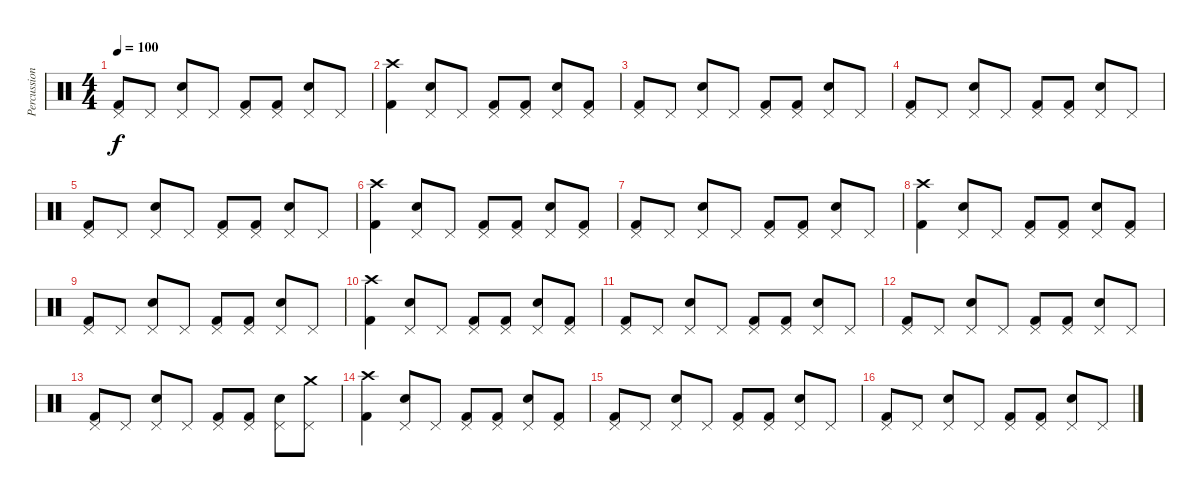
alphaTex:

\track ("Percussion" "Percussion") {instrument percussion}
\staff {score}
\articulation defaults
\ts (4 4)
\tempo 100
\clef neutral
\ks c
("Pedal Hi-Hat (hit)" "Kick (hit) 2").8{dy f} "Pedal Hi-Hat (hit)".8 ("Pedal Hi-Hat (hit)" "Snare (hit) 2").8 "Pedal Hi-Hat (hit)".8 ("Pedal Hi-Hat (hit)" "Kick (hit) 2").8 ("Pedal Hi-Hat (hit)" "Kick (hit) 2").8 ("Pedal Hi-Hat (hit)" "Snare (hit) 2").8 "Pedal Hi-Hat (hit)".8 |
("Crash high (hit)" "Kick (hit) 2").4 ("Pedal Hi-Hat (hit)" "Snare (hit) 2").8 "Pedal Hi-Hat (hit)".8 ("Pedal Hi-Hat (hit)" "Kick (hit) 2").8 ("Pedal Hi-Hat (hit)" "Kick (hit) 2").8 ("Pedal Hi-Hat (hit)" "Snare (hit) 2").8 ("Pedal Hi-Hat (hit)" "Kick (hit) 2").8 |
("Pedal Hi-Hat (hit)" "Kick (hit) 2").8 "Pedal Hi-Hat (hit)".8 ("Pedal Hi-Hat (hit)" "Snare (hit) 2").8 "Pedal Hi-Hat (hit)".8 ("Pedal Hi-Hat (hit)" "Kick (hit) 2").8 ("Pedal Hi-Hat (hit)" "Kick (hit) 2").8 ("Pedal Hi-Hat (hit)" "Snare (hit) 2").8 "Pedal Hi-Hat (hit)".8 |
("Pedal Hi-Hat (hit)" "Kick (hit) 2").8 "Pedal Hi-Hat (hit)".8 ("Pedal Hi-Hat (hit)" "Snare (hit) 2").8 "Pedal Hi-Hat (hit)".8 ("Pedal Hi-Hat (hit)" "Kick (hit) 2").8 ("Pedal Hi-Hat (hit)" "Kick (hit) 2").8 ("Pedal Hi-Hat (hit)" "Snare (hit) 2").8 "Pedal Hi-Hat (hit)".8 |
("Pedal Hi-Hat (hit)" "Kick (hit) 2").8 "Pedal Hi-Hat (hit)".8 ("Pedal Hi-Hat (hit)" "Snare (hit) 2").8 "Pedal Hi-Hat (hit)".8 ("Pedal Hi-Hat (hit)" "Kick (hit) 2").8 ("Pedal Hi-Hat (hit)" "Kick (hit) 2").8 ("Pedal Hi-Hat (hit)" "Snare (hit) 2").8 "Pedal Hi-Hat (hit)".8 |
("Crash high (hit)" "Kick (hit) 2").4 ("Pedal Hi-Hat (hit)" "Snare (hit) 2").8 "Pedal Hi-Hat (hit)".8 ("Pedal Hi-Hat (hit)" "Kick (hit) 2").8 ("Pedal Hi-Hat (hit)" "Kick (hit) 2").8 ("Pedal Hi-Hat (hit)" "Snare (hit) 2").8 ("Pedal Hi-Hat (hit)" "Kick (hit) 2").8 |
("Pedal Hi-Hat (hit)" "Kick (hit) 2").8 "Pedal Hi-Hat (hit)".8 ("Pedal Hi-Hat (hit)" "Snare (hit) 2").8 "Pedal Hi-Hat (hit)".8 ("Pedal Hi-Hat (hit)" "Kick (hit) 2").8 ("Pedal Hi-Hat (hit)" "Kick (hit) 2").8 ("Pedal Hi-Hat (hit)" "Snare (hit) 2").8 "Pedal Hi-Hat (hit)".8 |
("Crash high (hit)" "Kick (hit) 2").4 ("Pedal Hi-Hat (hit)" "Snare (hit) 2").8 "Pedal Hi-Hat (hit)".8 ("Pedal Hi-Hat (hit)" "Kick (hit) 2").8 ("Pedal Hi-Hat (hit)" "Kick (hit) 2").8 ("Pedal Hi-Hat (hit)" "Snare (hit) 2").8 ("Pedal Hi-Hat (hit)" "Kick (hit) 2").8 |
("Pedal Hi-Hat (hit)" "Kick (hit) 2").8 "Pedal Hi-Hat (hit)".8 ("Pedal Hi-Hat (hit)" "Snare (hit) 2").8 "Pedal Hi-Hat (hit)".8 ("Pedal Hi-Hat (hit)" "Kick (hit) 2").8 ("Pedal Hi-Hat (hit)" "Kick (hit) 2").8 ("Pedal Hi-Hat (hit)" "Snare (hit) 2").8 "Pedal Hi-Hat (hit)".8 |
("Crash high (hit)" "Kick (hit) 2").4 ("Pedal Hi-Hat (hit)" "Snare (hit) 2").8 "Pedal Hi-Hat (hit)".8 ("Pedal Hi-Hat (hit)" "Kick (hit) 2").8 ("Pedal Hi-Hat (hit)" "Kick (hit) 2").8 ("Pedal Hi-Hat (hit)" "Snare (hit) 2").8 ("Pedal Hi-Hat (hit)" "Kick (hit) 2").8 |
("Pedal Hi-Hat (hit)" "Kick (hit) 2").8 "Pedal Hi-Hat (hit)".8 ("Pedal Hi-Hat (hit)" "Snare (hit) 2").8 "Pedal Hi-Hat (hit)".8 ("Pedal Hi-Hat (hit)" "Kick (hit) 2").8 ("Pedal Hi-Hat (hit)" "Kick (hit) 2").8 ("Pedal Hi-Hat (hit)" "Snare (hit) 2").8 "Pedal Hi-Hat (hit)".8 |
("Pedal Hi-Hat (hit)" "Kick (hit) 2").8 "Pedal Hi-Hat (hit)".8 ("Pedal Hi-Hat (hit)" "Snare (hit) 2").8 "Pedal Hi-Hat (hit)".8 ("Pedal Hi-Hat (hit)" "Kick (hit) 2").8 ("Pedal Hi-Hat (hit)" "Kick (hit) 2").8 ("Pedal Hi-Hat (hit)" "Snare (hit) 2").8 "Pedal Hi-Hat (hit)".8 |
("Pedal Hi-Hat (hit)" "Kick (hit) 2").8 "Pedal Hi-Hat (hit)".8 ("Pedal Hi-Hat (hit)" "Snare (hit) 2").8 "Pedal Hi-Hat (hit)".8 ("Pedal Hi-Hat (hit)" "Kick (hit) 2").8 ("Pedal Hi-Hat (hit)" "Kick (hit) 2").8 ("Pedal Hi-Hat (hit)" "Snare (hit) 2").8 ("Pedal Hi-Hat (hit)" "Crash medium (hit)").8 |
("Crash high (hit)" "Kick (hit) 2").4 ("Pedal Hi-Hat (hit)" "Snare (hit) 2").8 "Pedal Hi-Hat (hit)".8 ("Pedal Hi-Hat (hit)" "Kick (hit) 2").8 ("Pedal Hi-Hat (hit)" "Kick (hit) 2").8 ("Pedal Hi-Hat (hit)" "Snare (hit) 2").8 ("Pedal Hi-Hat (hit)" "Kick (hit) 2").8 |
("Pedal Hi-Hat (hit)" "Kick (hit) 2").8 "Pedal Hi-Hat (hit)".8 ("Pedal Hi-Hat (hit)" "Snare (hit) 2").8 "Pedal Hi-Hat (hit)".8 ("Pedal Hi-Hat (hit)" "Kick (hit) 2").8 ("Pedal Hi-Hat (hit)" "Kick (hit) 2").8 ("Pedal Hi-Hat (hit)" "Snare (hit) 2").8 "Pedal Hi-Hat (hit)".8 |
("Pedal Hi-Hat (hit)" "Kick (hit) 2").8 "Pedal Hi-Hat (hit)".8 ("Pedal Hi-Hat (hit)" "Snare (hit) 2").8 "Pedal Hi-Hat (hit)".8 ("Pedal Hi-Hat (hit)" "Kick (hit) 2").8 ("Pedal Hi-Hat (hit)" "Kick (hit) 2").8 ("Pedal Hi-Hat (hit)" "Snare (hit) 2").8 "Pedal Hi-Hat (hit)".8
